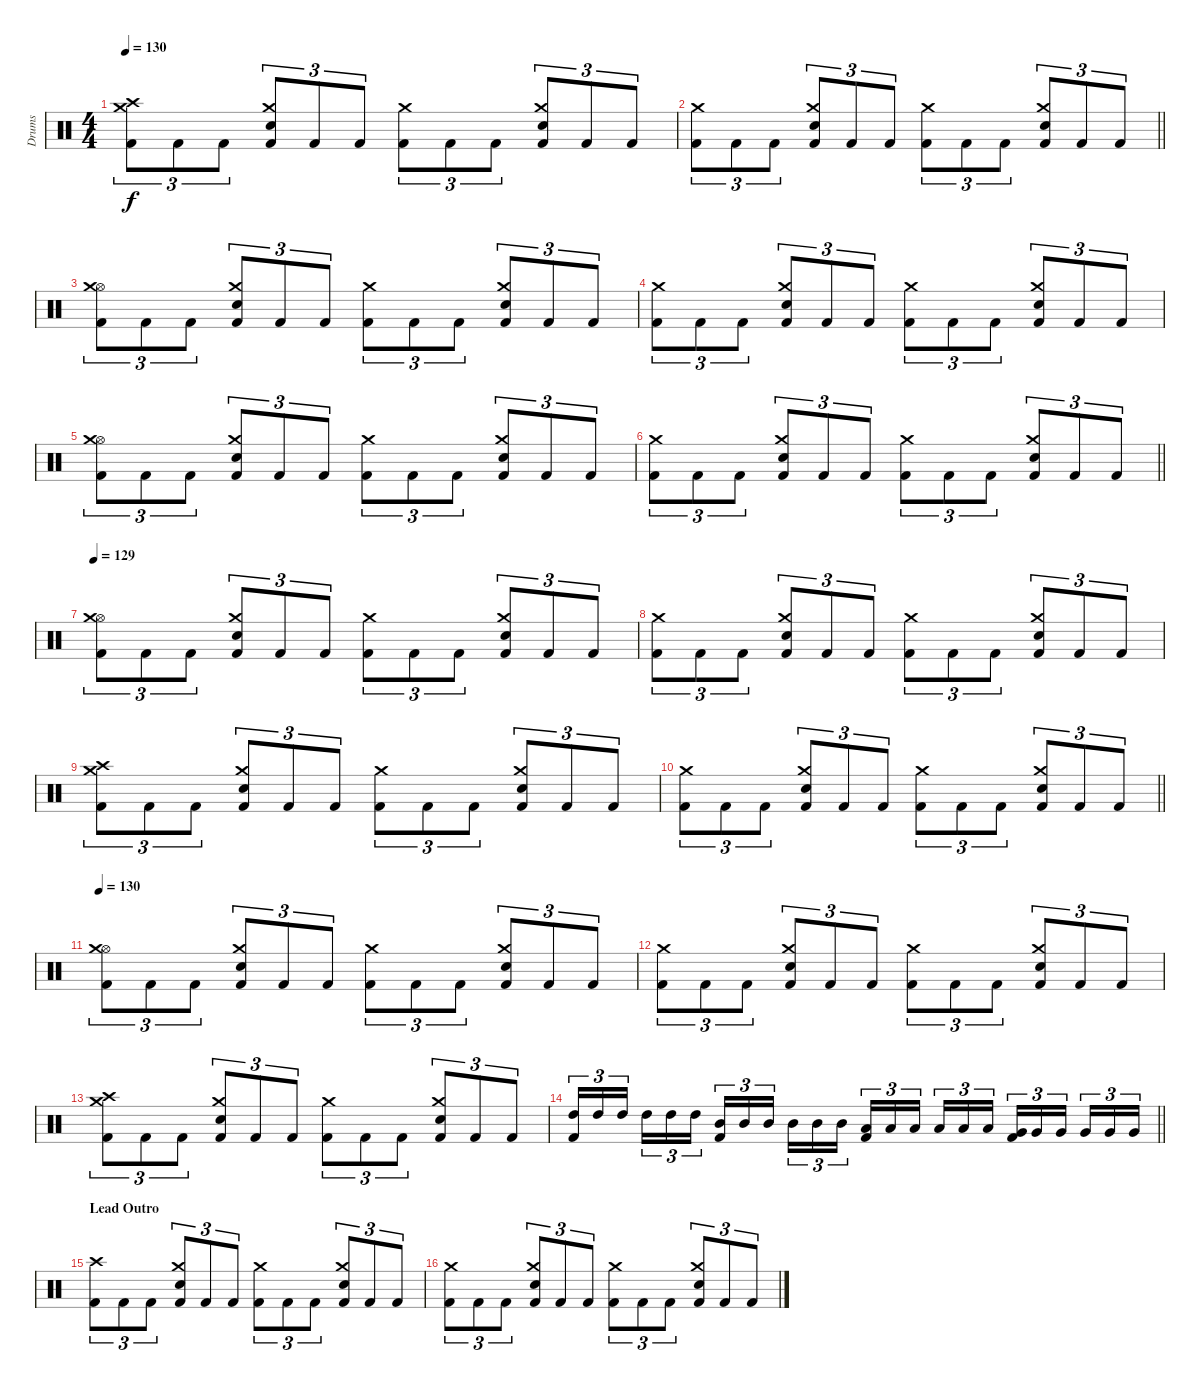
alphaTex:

\track ("Drums" "Drums") {instrument percussion}
\staff {score}
\articulation defaults
\ts (4 4)
\tempo 130
\clef neutral
\ks c
("Kick (hit) 2" "Crash medium (hit)" "Crash high (hit)").8{tu (3 2) dy f} "Kick (hit) 2".8{tu (3 2)} "Kick (hit) 2".8{tu (3 2)} ("Kick (hit) 2" "Snare (hit) 2" "Crash medium (hit)").8{tu (3 2)} "Kick (hit) 2".8{tu (3 2)} "Kick (hit) 2".8{tu (3 2)} ("Kick (hit) 2" "Crash medium (hit)").8{tu (3 2)} "Kick (hit) 2".8{tu (3 2)} "Kick (hit) 2".8{tu (3 2)} ("Kick (hit) 2" "Snare (hit) 2" "Crash medium (hit)").8{tu (3 2)} "Kick (hit) 2".8{tu (3 2)} "Kick (hit) 2".8{tu (3 2)} |
\barLineRight lightlight
("Kick (hit) 2" "Crash medium (hit)").8{tu (3 2)} "Kick (hit) 2".8{tu (3 2)} "Kick (hit) 2".8{tu (3 2)} ("Kick (hit) 2" "Snare (hit) 2" "Crash medium (hit)").8{tu (3 2)} "Kick (hit) 2".8{tu (3 2)} "Kick (hit) 2".8{tu (3 2)} ("Kick (hit) 2" "Crash medium (hit)").8{tu (3 2)} "Kick (hit) 2".8{tu (3 2)} "Kick (hit) 2".8{tu (3 2)} ("Kick (hit) 2" "Snare (hit) 2" "Crash medium (hit)").8{tu (3 2)} "Kick (hit) 2".8{tu (3 2)} "Kick (hit) 2".8{tu (3 2)} |
\section ("" "")
("Kick (hit) 2" "Hi-Hat (open)" "Crash medium (hit)").8{tu (3 2)} "Kick (hit) 2".8{tu (3 2)} "Kick (hit) 2".8{tu (3 2)} ("Kick (hit) 2" "Snare (hit) 2" "Crash medium (hit)").8{tu (3 2)} "Kick (hit) 2".8{tu (3 2)} "Kick (hit) 2".8{tu (3 2)} ("Kick (hit) 2" "Crash medium (hit)").8{tu (3 2)} "Kick (hit) 2".8{tu (3 2)} "Kick (hit) 2".8{tu (3 2)} ("Kick (hit) 2" "Snare (hit) 2" "Crash medium (hit)").8{tu (3 2)} "Kick (hit) 2".8{tu (3 2)} "Kick (hit) 2".8{tu (3 2)} |
("Kick (hit) 2" "Crash medium (hit)").8{tu (3 2)} "Kick (hit) 2".8{tu (3 2)} "Kick (hit) 2".8{tu (3 2)} ("Kick (hit) 2" "Snare (hit) 2" "Crash medium (hit)").8{tu (3 2)} "Kick (hit) 2".8{tu (3 2)} "Kick (hit) 2".8{tu (3 2)} ("Kick (hit) 2" "Crash medium (hit)").8{tu (3 2)} "Kick (hit) 2".8{tu (3 2)} "Kick (hit) 2".8{tu (3 2)} ("Kick (hit) 2" "Snare (hit) 2" "Crash medium (hit)").8{tu (3 2)} "Kick (hit) 2".8{tu (3 2)} "Kick (hit) 2".8{tu (3 2)} |
("Kick (hit) 2" "Hi-Hat (open)" "Crash medium (hit)").8{tu (3 2)} "Kick (hit) 2".8{tu (3 2)} "Kick (hit) 2".8{tu (3 2)} ("Kick (hit) 2" "Snare (hit) 2" "Crash medium (hit)").8{tu (3 2)} "Kick (hit) 2".8{tu (3 2)} "Kick (hit) 2".8{tu (3 2)} ("Kick (hit) 2" "Crash medium (hit)").8{tu (3 2)} "Kick (hit) 2".8{tu (3 2)} "Kick (hit) 2".8{tu (3 2)} ("Kick (hit) 2" "Snare (hit) 2" "Crash medium (hit)").8{tu (3 2)} "Kick (hit) 2".8{tu (3 2)} "Kick (hit) 2".8{tu (3 2)} |
\barLineRight lightlight
("Kick (hit) 2" "Crash medium (hit)").8{tu (3 2)} "Kick (hit) 2".8{tu (3 2)} "Kick (hit) 2".8{tu (3 2)} ("Kick (hit) 2" "Snare (hit) 2" "Crash medium (hit)").8{tu (3 2)} "Kick (hit) 2".8{tu (3 2)} "Kick (hit) 2".8{tu (3 2)} ("Kick (hit) 2" "Crash medium (hit)").8{tu (3 2)} "Kick (hit) 2".8{tu (3 2)} "Kick (hit) 2".8{tu (3 2)} ("Kick (hit) 2" "Snare (hit) 2" "Crash medium (hit)").8{tu (3 2)} "Kick (hit) 2".8{tu (3 2)} "Kick (hit) 2".8{tu (3 2)} |
\section ("" "")
\tempo 129
("Kick (hit) 2" "Hi-Hat (open)" "Crash medium (hit)").8{tu (3 2)} "Kick (hit) 2".8{tu (3 2)} "Kick (hit) 2".8{tu (3 2)} ("Kick (hit) 2" "Snare (hit) 2" "Crash medium (hit)").8{tu (3 2)} "Kick (hit) 2".8{tu (3 2)} "Kick (hit) 2".8{tu (3 2)} ("Kick (hit) 2" "Crash medium (hit)").8{tu (3 2)} "Kick (hit) 2".8{tu (3 2)} "Kick (hit) 2".8{tu (3 2)} ("Kick (hit) 2" "Snare (hit) 2" "Crash medium (hit)").8{tu (3 2)} "Kick (hit) 2".8{tu (3 2)} "Kick (hit) 2".8{tu (3 2)} |
("Kick (hit) 2" "Crash medium (hit)").8{tu (3 2)} "Kick (hit) 2".8{tu (3 2)} "Kick (hit) 2".8{tu (3 2)} ("Kick (hit) 2" "Snare (hit) 2" "Crash medium (hit)").8{tu (3 2)} "Kick (hit) 2".8{tu (3 2)} "Kick (hit) 2".8{tu (3 2)} ("Kick (hit) 2" "Crash medium (hit)").8{tu (3 2)} "Kick (hit) 2".8{tu (3 2)} "Kick (hit) 2".8{tu (3 2)} ("Kick (hit) 2" "Snare (hit) 2" "Crash medium (hit)").8{tu (3 2)} "Kick (hit) 2".8{tu (3 2)} "Kick (hit) 2".8{tu (3 2)} |
("Kick (hit) 2" "Crash medium (hit)" "Crash high (hit)").8{tu (3 2)} "Kick (hit) 2".8{tu (3 2)} "Kick (hit) 2".8{tu (3 2)} ("Kick (hit) 2" "Snare (hit) 2" "Crash medium (hit)").8{tu (3 2)} "Kick (hit) 2".8{tu (3 2)} "Kick (hit) 2".8{tu (3 2)} ("Kick (hit) 2" "Crash medium (hit)").8{tu (3 2)} "Kick (hit) 2".8{tu (3 2)} "Kick (hit) 2".8{tu (3 2)} ("Kick (hit) 2" "Snare (hit) 2" "Crash medium (hit)").8{tu (3 2)} "Kick (hit) 2".8{tu (3 2)} "Kick (hit) 2".8{tu (3 2)} |
\barLineRight lightlight
("Kick (hit) 2" "Crash medium (hit)").8{tu (3 2)} "Kick (hit) 2".8{tu (3 2)} "Kick (hit) 2".8{tu (3 2)} ("Kick (hit) 2" "Snare (hit) 2" "Crash medium (hit)").8{tu (3 2)} "Kick (hit) 2".8{tu (3 2)} "Kick (hit) 2".8{tu (3 2)} ("Kick (hit) 2" "Crash medium (hit)").8{tu (3 2)} "Kick (hit) 2".8{tu (3 2)} "Kick (hit) 2".8{tu (3 2)} ("Kick (hit) 2" "Snare (hit) 2" "Crash medium (hit)").8{tu (3 2)} "Kick (hit) 2".8{tu (3 2)} "Kick (hit) 2".8{tu (3 2)} |
\section ("" "")
\tempo 130
("Kick (hit) 2" "Hi-Hat (open)" "Crash medium (hit)").8{tu (3 2)} "Kick (hit) 2".8{tu (3 2)} "Kick (hit) 2".8{tu (3 2)} ("Kick (hit) 2" "Snare (hit) 2" "Crash medium (hit)").8{tu (3 2)} "Kick (hit) 2".8{tu (3 2)} "Kick (hit) 2".8{tu (3 2)} ("Kick (hit) 2" "Crash medium (hit)").8{tu (3 2)} "Kick (hit) 2".8{tu (3 2)} "Kick (hit) 2".8{tu (3 2)} ("Kick (hit) 2" "Snare (hit) 2" "Crash medium (hit)").8{tu (3 2)} "Kick (hit) 2".8{tu (3 2)} "Kick (hit) 2".8{tu (3 2)} |
("Kick (hit) 2" "Crash medium (hit)").8{tu (3 2)} "Kick (hit) 2".8{tu (3 2)} "Kick (hit) 2".8{tu (3 2)} ("Kick (hit) 2" "Snare (hit) 2" "Crash medium (hit)").8{tu (3 2)} "Kick (hit) 2".8{tu (3 2)} "Kick (hit) 2".8{tu (3 2)} ("Kick (hit) 2" "Crash medium (hit)").8{tu (3 2)} "Kick (hit) 2".8{tu (3 2)} "Kick (hit) 2".8{tu (3 2)} ("Kick (hit) 2" "Snare (hit) 2" "Crash medium (hit)").8{tu (3 2)} "Kick (hit) 2".8{tu (3 2)} "Kick (hit) 2".8{tu (3 2)} |
("Kick (hit) 2" "Crash medium (hit)" "Crash high (hit)").8{tu (3 2)} "Kick (hit) 2".8{tu (3 2)} "Kick (hit) 2".8{tu (3 2)} ("Kick (hit) 2" "Snare (hit) 2" "Crash medium (hit)").8{tu (3 2)} "Kick (hit) 2".8{tu (3 2)} "Kick (hit) 2".8{tu (3 2)} ("Kick (hit) 2" "Crash medium (hit)").8{tu (3 2)} "Kick (hit) 2".8{tu (3 2)} "Kick (hit) 2".8{tu (3 2)} ("Kick (hit) 2" "Snare (hit) 2" "Crash medium (hit)").8{tu (3 2)} "Kick (hit) 2".8{tu (3 2)} "Kick (hit) 2".8{tu (3 2)} |
\barLineRight lightlight
("Kick (hit) 2" "High Tom (hit)").16{tu (3 2)} "High Tom (hit)".16{tu (3 2)} "High Tom (hit)".16{tu (3 2) beam splitsecondary} "High Tom (hit)".16{tu (3 2)} "High Tom (hit)".16{tu (3 2)} "High Tom (hit)".16{tu (3 2)} ("Kick (hit) 2" "Mid Tom (hit)").16{tu (3 2)} "Mid Tom (hit)".16{tu (3 2)} "Mid Tom (hit)".16{tu (3 2) beam splitsecondary} "Mid Tom (hit)".16{tu (3 2)} "Mid Tom (hit)".16{tu (3 2)} "Mid Tom (hit)".16{tu (3 2)} ("Kick (hit) 2" "Low Tom (hit)").16{tu (3 2)} "Low Tom (hit)".16{tu (3 2)} "Low Tom (hit)".16{tu (3 2) beam splitsecondary} "Low Tom (hit)".16{tu (3 2)} "Low Tom (hit)".16{tu (3 2)} "Low Tom (hit)".16{tu (3 2)} ("Kick (hit) 2" "Very Low Tom (hit)").16{tu (3 2)} "Very Low Tom (hit)".16{tu (3 2)} "Very Low Tom (hit)".16{tu (3 2) beam splitsecondary} "Very Low Tom (hit)".16{tu (3 2)} "Very Low Tom (hit)".16{tu (3 2)} "Very Low Tom (hit)".16{tu (3 2)} |
\section ("" "Lead Outro")
("Kick (hit) 2" "Crash high (hit)").8{tu (3 2)} "Kick (hit) 2".8{tu (3 2)} "Kick (hit) 2".8{tu (3 2)} ("Kick (hit) 2" "Snare (hit) 2" "Crash medium (hit)").8{tu (3 2)} "Kick (hit) 2".8{tu (3 2)} "Kick (hit) 2".8{tu (3 2)} ("Kick (hit) 2" "Crash medium (hit)").8{tu (3 2)} "Kick (hit) 2".8{tu (3 2)} "Kick (hit) 2".8{tu (3 2)} ("Kick (hit) 2" "Snare (hit) 2" "Crash medium (hit)").8{tu (3 2)} "Kick (hit) 2".8{tu (3 2)} "Kick (hit) 2".8{tu (3 2)} |
("Kick (hit) 2" "Crash medium (hit)").8{tu (3 2)} "Kick (hit) 2".8{tu (3 2)} "Kick (hit) 2".8{tu (3 2)} ("Kick (hit) 2" "Snare (hit) 2" "Crash medium (hit)").8{tu (3 2)} "Kick (hit) 2".8{tu (3 2)} "Kick (hit) 2".8{tu (3 2)} ("Kick (hit) 2" "Crash medium (hit)").8{tu (3 2)} "Kick (hit) 2".8{tu (3 2)} "Kick (hit) 2".8{tu (3 2)} ("Kick (hit) 2" "Snare (hit) 2" "Crash medium (hit)").8{tu (3 2)} "Kick (hit) 2".8{tu (3 2)} "Kick (hit) 2".8{tu (3 2)}
